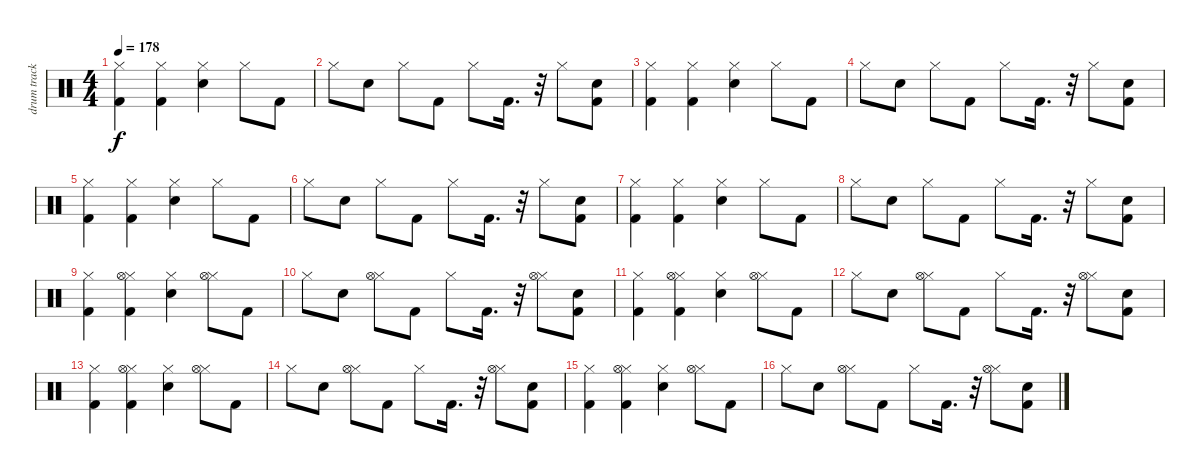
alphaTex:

\track ("drum track" "drum track") {instrument percussion}
\staff {score}
\articulation defaults
\ts (4 4)
\tempo 178
\clef neutral
\ks c
("Hi-Hat (closed)" "Kick (hit) 2").4{dy f} ("Hi-Hat (closed)" "Kick (hit) 2").4 ("Snare (hit) 2" "Hi-Hat (closed)").4 "Hi-Hat (closed)".8 "Kick (hit) 2".8 |
"Hi-Hat (closed)".8 "Snare (hit) 2".8 "Hi-Hat (closed)".8 "Kick (hit) 2".8 "Hi-Hat (closed)".8 "Kick (hit) 2".16{d} r.32 "Hi-Hat (closed)".8 ("Kick (hit) 2" "Snare (hit) 2").8 |
("Hi-Hat (closed)" "Kick (hit) 2").4 ("Hi-Hat (closed)" "Kick (hit) 2").4 ("Snare (hit) 2" "Hi-Hat (closed)").4 "Hi-Hat (closed)".8 "Kick (hit) 2".8 |
"Hi-Hat (closed)".8 "Snare (hit) 2".8 "Hi-Hat (closed)".8 "Kick (hit) 2".8 "Hi-Hat (closed)".8 "Kick (hit) 2".16{d} r.32 "Hi-Hat (closed)".8 ("Kick (hit) 2" "Snare (hit) 2").8 |
("Hi-Hat (closed)" "Kick (hit) 2").4 ("Hi-Hat (closed)" "Kick (hit) 2").4 ("Snare (hit) 2" "Hi-Hat (closed)").4 "Hi-Hat (closed)".8 "Kick (hit) 2".8 |
"Hi-Hat (closed)".8 "Snare (hit) 2".8 "Hi-Hat (closed)".8 "Kick (hit) 2".8 "Hi-Hat (closed)".8 "Kick (hit) 2".16{d} r.32 "Hi-Hat (closed)".8 ("Kick (hit) 2" "Snare (hit) 2").8 |
("Hi-Hat (closed)" "Kick (hit) 2").4 ("Hi-Hat (closed)" "Kick (hit) 2").4 ("Snare (hit) 2" "Hi-Hat (closed)").4 "Hi-Hat (closed)".8 "Kick (hit) 2".8 |
"Hi-Hat (closed)".8 "Snare (hit) 2".8 "Hi-Hat (closed)".8 "Kick (hit) 2".8 "Hi-Hat (closed)".8 "Kick (hit) 2".16{d} r.32 "Hi-Hat (closed)".8 ("Kick (hit) 2" "Snare (hit) 2").8 |
("Hi-Hat (closed)" "Kick (hit) 2").4 ("Hi-Hat (closed)" "Hi-Hat (open)" "Kick (hit) 2").4 ("Snare (hit) 2" "Hi-Hat (closed)").4 ("Hi-Hat (closed)" "Hi-Hat (open)").8 "Kick (hit) 2".8 |
"Hi-Hat (closed)".8 "Snare (hit) 2".8 ("Hi-Hat (closed)" "Hi-Hat (open)").8 "Kick (hit) 2".8 "Hi-Hat (closed)".8 "Kick (hit) 2".16{d} r.32 ("Hi-Hat (closed)" "Hi-Hat (open)").8 ("Kick (hit) 2" "Snare (hit) 2").8 |
("Hi-Hat (closed)" "Kick (hit) 2").4 ("Hi-Hat (closed)" "Hi-Hat (open)" "Kick (hit) 2").4 ("Snare (hit) 2" "Hi-Hat (closed)").4 ("Hi-Hat (closed)" "Hi-Hat (open)").8 "Kick (hit) 2".8 |
"Hi-Hat (closed)".8 "Snare (hit) 2".8 ("Hi-Hat (closed)" "Hi-Hat (open)").8 "Kick (hit) 2".8 "Hi-Hat (closed)".8 "Kick (hit) 2".16{d} r.32 ("Hi-Hat (closed)" "Hi-Hat (open)").8 ("Kick (hit) 2" "Snare (hit) 2").8 |
("Hi-Hat (closed)" "Kick (hit) 2").4 ("Hi-Hat (closed)" "Hi-Hat (open)" "Kick (hit) 2").4 ("Snare (hit) 2" "Hi-Hat (closed)").4 ("Hi-Hat (closed)" "Hi-Hat (open)").8 "Kick (hit) 2".8 |
"Hi-Hat (closed)".8 "Snare (hit) 2".8 ("Hi-Hat (closed)" "Hi-Hat (open)").8 "Kick (hit) 2".8 "Hi-Hat (closed)".8 "Kick (hit) 2".16{d} r.32 ("Hi-Hat (closed)" "Hi-Hat (open)").8 ("Kick (hit) 2" "Snare (hit) 2").8 |
("Hi-Hat (closed)" "Kick (hit) 2").4 ("Hi-Hat (closed)" "Hi-Hat (open)" "Kick (hit) 2").4 ("Snare (hit) 2" "Hi-Hat (closed)").4 ("Hi-Hat (closed)" "Hi-Hat (open)").8 "Kick (hit) 2".8 |
"Hi-Hat (closed)".8 "Snare (hit) 2".8 ("Hi-Hat (closed)" "Hi-Hat (open)").8 "Kick (hit) 2".8 "Hi-Hat (closed)".8 "Kick (hit) 2".16{d} r.32 ("Hi-Hat (closed)" "Hi-Hat (open)").8 ("Kick (hit) 2" "Snare (hit) 2").8
